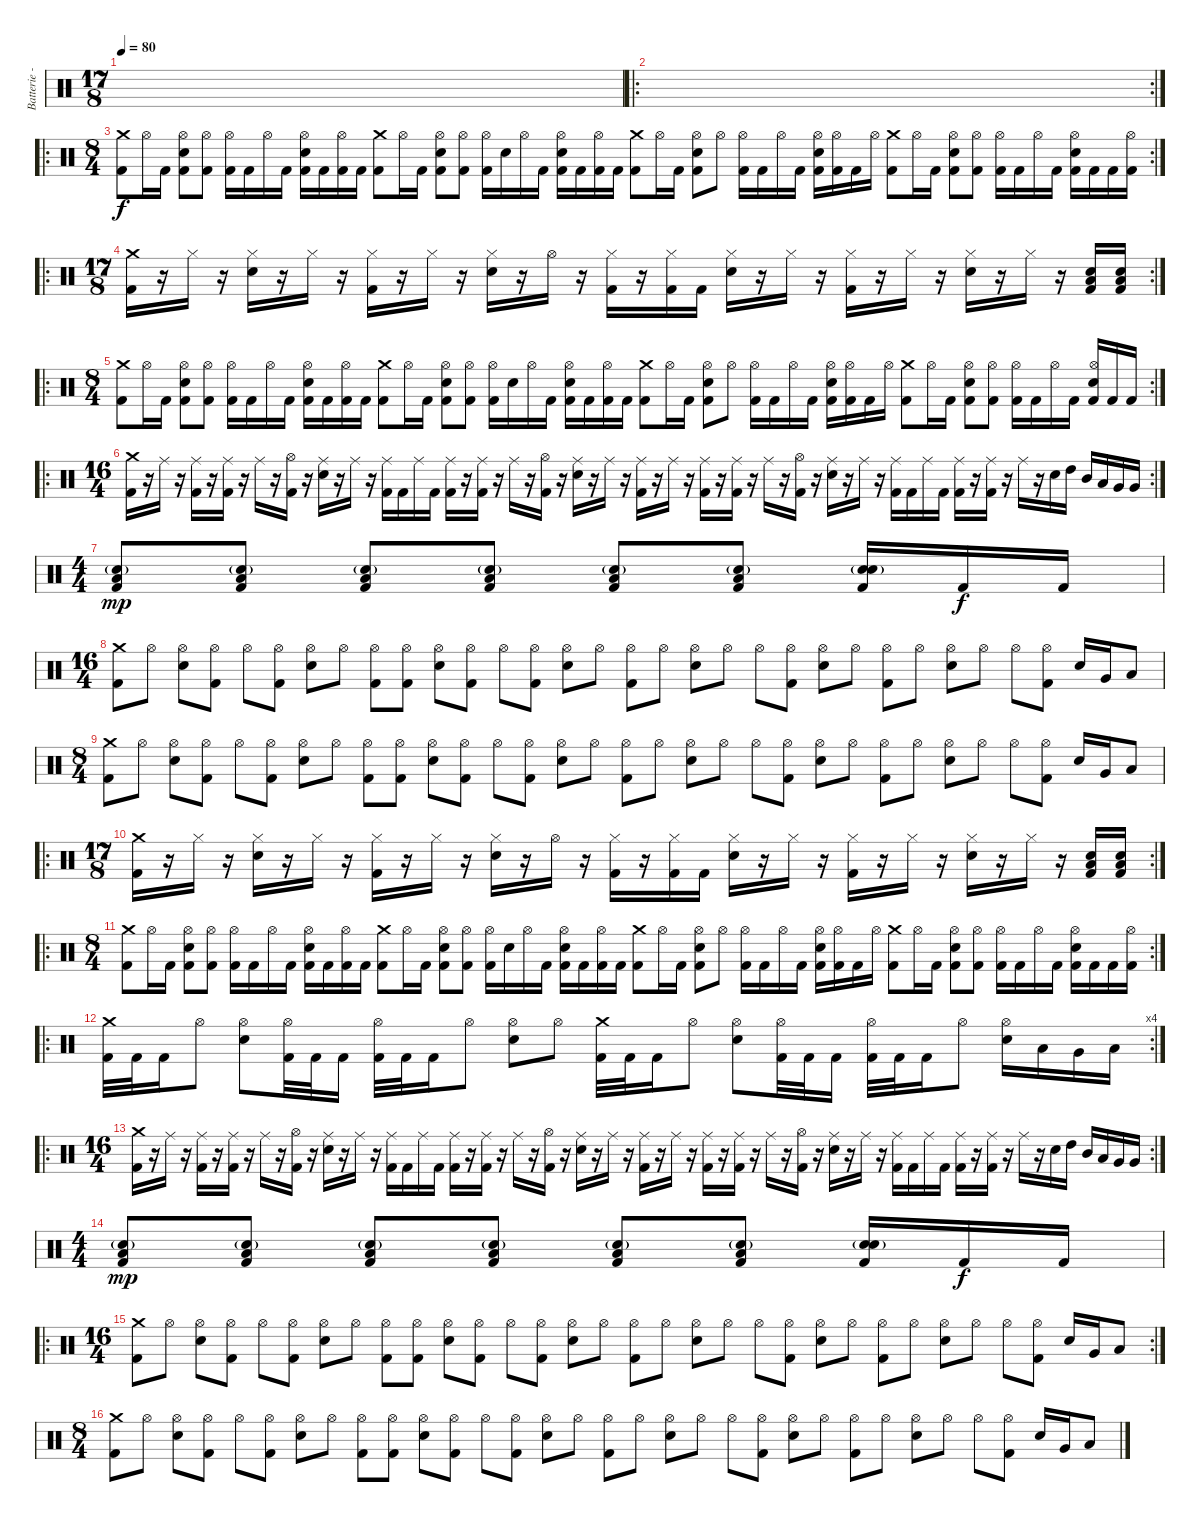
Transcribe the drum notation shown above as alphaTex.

\track ("Batterie - " "Batterie -") {instrument percussion}
\staff {score}
\articulation defaults
\ts (17 8)
\tempo 80
\clef neutral
\ks c
|
\ro
\rc 2
|
\ro
\rc 2
\ts (8 4)
("Crash medium (hit)" "Kick (hit) 2").8 "Hi-Hat (open)".16 "Kick (hit) 2".16 ("Electric Snare (hit)" "Kick (hit) 2" "Hi-Hat (open)").8 ("Kick (hit) 2" "Hi-Hat (open)").8 ("Kick (hit) 2" "Hi-Hat (open)").16 "Kick (hit) 2".16 "Hi-Hat (open)".16 "Kick (hit) 2".16 ("Hi-Hat (open)" "Kick (hit) 2" "Electric Snare (hit)").16 "Kick (hit) 2".16 ("Hi-Hat (open)" "Kick (hit) 2").16 "Kick (hit) 2".16 ("Kick (hit) 2" "Crash medium (hit)").8 "Hi-Hat (open)".16 "Kick (hit) 2".16 ("Hi-Hat (open)" "Electric Snare (hit)" "Kick (hit) 2").8 ("Kick (hit) 2" "Hi-Hat (open)").8 ("Kick (hit) 2" "Hi-Hat (open)").16 "Electric Snare (hit)".16 "Hi-Hat (open)".16 "Kick (hit) 2".16 ("Hi-Hat (open)" "Kick (hit) 2" "Electric Snare (hit)").16 "Kick (hit) 2".16 ("Hi-Hat (open)" "Kick (hit) 2").16 "Kick (hit) 2".16 ("Crash medium (hit)" "Kick (hit) 2").8 "Hi-Hat (open)".16 "Kick (hit) 2".16 ("Hi-Hat (open)" "Electric Snare (hit)" "Kick (hit) 2").8 "Hi-Hat (open)".8 ("Kick (hit) 2" "Hi-Hat (open)").16 "Kick (hit) 2".16 "Hi-Hat (open)".16 "Kick (hit) 2".16 ("Hi-Hat (open)" "Kick (hit) 2" "Electric Snare (hit)").16 ("Hi-Hat (open)" "Kick (hit) 2").16 "Kick (hit) 2".16 "Hi-Hat (open)".16 ("Kick (hit) 2" "Crash medium (hit)").8 "Hi-Hat (open)".16 "Kick (hit) 2".16 ("Hi-Hat (open)" "Electric Snare (hit)" "Kick (hit) 2").8 ("Kick (hit) 2" "Hi-Hat (open)").8 ("Hi-Hat (open)" "Kick (hit) 2").16 "Kick (hit) 2".16 "Hi-Hat (open)".16 "Kick (hit) 2".16 ("Hi-Hat (open)" "Kick (hit) 2" "Electric Snare (hit)").16 "Kick (hit) 2".16 "Kick (hit) 2".16 ("Hi-Hat (open)" "Kick (hit) 2").16 |
\ro
\rc 2
\ts (17 8)
("Kick (hit) 2" "Crash medium (hit)").16 r.16 "Hi-Hat (closed)".16 r.16 ("Electric Snare (hit)" "Hi-Hat (closed)").16 r.16 "Hi-Hat (closed)".16 r.16 ("Kick (hit) 2" "Hi-Hat (closed)").16 r.16 "Hi-Hat (closed)".16 r.16 ("Electric Snare (hit)" "Hi-Hat (closed)").16 r.16 "Hi-Hat (open)".16 r.16 ("Kick (hit) 2" "Hi-Hat (closed)").16 r.16 ("Kick (hit) 2" "Hi-Hat (closed)").16 "Kick (hit) 2".16 ("Electric Snare (hit)" "Hi-Hat (closed)").16 r.16 "Hi-Hat (closed)".16 r.16 ("Kick (hit) 2" "Hi-Hat (closed)").16 r.16 "Hi-Hat (closed)".16 r.16 ("Electric Snare (hit)" "Hi-Hat (closed)").16 r.16 "Hi-Hat (closed)".16 r.16 ("Low Floor Tom (hit)" "Kick (hit) 2" "Electric Snare (hit)").16 ("Low Floor Tom (hit)" "Kick (hit) 2" "Electric Snare (hit)").16 |
\ro
\rc 2
\ts (8 4)
("Crash medium (hit)" "Kick (hit) 2").8 "Hi-Hat (open)".16 "Kick (hit) 2".16 ("Electric Snare (hit)" "Kick (hit) 2" "Hi-Hat (open)").8 ("Kick (hit) 2" "Hi-Hat (open)").8 ("Kick (hit) 2" "Hi-Hat (open)").16 "Kick (hit) 2".16 "Hi-Hat (open)".16 "Kick (hit) 2".16 ("Hi-Hat (open)" "Kick (hit) 2" "Electric Snare (hit)").16 "Kick (hit) 2".16 ("Hi-Hat (open)" "Kick (hit) 2").16 "Kick (hit) 2".16 ("Kick (hit) 2" "Crash medium (hit)").8 "Hi-Hat (open)".16 "Kick (hit) 2".16 ("Hi-Hat (open)" "Electric Snare (hit)" "Kick (hit) 2").8 ("Kick (hit) 2" "Hi-Hat (open)").8 ("Kick (hit) 2" "Hi-Hat (open)").16 "Electric Snare (hit)".16 "Hi-Hat (open)".16 "Kick (hit) 2".16 ("Hi-Hat (open)" "Kick (hit) 2" "Electric Snare (hit)").16 "Kick (hit) 2".16 ("Hi-Hat (open)" "Kick (hit) 2").16 "Kick (hit) 2".16 ("Crash medium (hit)" "Kick (hit) 2").8 "Hi-Hat (open)".16 "Kick (hit) 2".16 ("Hi-Hat (open)" "Electric Snare (hit)" "Kick (hit) 2").8 "Hi-Hat (open)".8 ("Kick (hit) 2" "Hi-Hat (open)").16 "Kick (hit) 2".16 "Hi-Hat (open)".16 "Kick (hit) 2".16 ("Hi-Hat (open)" "Kick (hit) 2" "Electric Snare (hit)").16 ("Hi-Hat (open)" "Kick (hit) 2").16 "Kick (hit) 2".16 "Hi-Hat (open)".16 ("Kick (hit) 2" "Crash medium (hit)").8 "Hi-Hat (open)".16 "Kick (hit) 2".16 ("Hi-Hat (open)" "Electric Snare (hit)" "Kick (hit) 2").8 ("Kick (hit) 2" "Hi-Hat (open)").8 ("Hi-Hat (open)" "Kick (hit) 2").16 "Kick (hit) 2".16 "Hi-Hat (open)".16 "Kick (hit) 2".16 ("Hi-Hat (open)" "Kick (hit) 2" "Electric Snare (hit)").16 "Kick (hit) 2".16 "Kick (hit) 2".16 |
\ro
\rc 2
\ts (16 4)
("Kick (hit) 2" "Crash medium (hit)").16 r.16 "Ride (middle)".16 r.16 ("Kick (hit) 2" "Ride (middle)").16 r.16 ("Kick (hit) 2" "Ride (middle)").16 r.16 "Ride (middle)".16 r.16 ("Kick (hit) 2" "Hi-Hat (open)").16 r.16 ("Electric Snare (hit)" "Ride (middle)").16 r.16 "Ride (middle)".16 r.16 ("Kick (hit) 2" "Ride (middle)").16 "Kick (hit) 2".16 "Ride (middle)".16 "Kick (hit) 2".16 ("Kick (hit) 2" "Ride (middle)").16 r.16 ("Kick (hit) 2" "Ride (middle)").16 r.16 "Ride (middle)".16 r.16 ("Kick (hit) 2" "Hi-Hat (open)").16 r.16 ("Electric Snare (hit)" "Ride (middle)").16 r.16 "Ride (middle)".16 r.16 ("Kick (hit) 2" "Ride (middle)").16 r.16 "Ride (middle)".16 r.16 ("Kick (hit) 2" "Ride (middle)").16 r.16 ("Kick (hit) 2" "Ride (middle)").16 r.16 "Ride (middle)".16 r.16 ("Hi-Hat (open)" "Kick (hit) 2").16 r.16 ("Electric Snare (hit)" "Ride (middle)").16 r.16 "Ride (middle)".16 r.16 ("Kick (hit) 2" "Ride (middle)").16 "Kick (hit) 2".16 "Ride (middle)".16 "Kick (hit) 2".16 ("Kick (hit) 2" "Ride (middle)").16 r.16 ("Kick (hit) 2" "Ride (middle)").16 r.16 "Ride (middle)".16 r.16 "Electric Snare (hit)".16 "High Tom (hit)".16 "Mid Tom (hit)".16 "Low Tom (hit)".16 "Very Low Tom (hit)".16 "Very Low Tom (hit)".16 |
\ts (4 4)
("Kick (hit) 2" "Electric Snare (hit)"{g} "Low Floor Tom (hit)").8{dy mp} ("Kick (hit) 2" "Electric Snare (hit)"{g} "Low Floor Tom (hit)").8 ("Kick (hit) 2" "Electric Snare (hit)"{g} "Low Floor Tom (hit)").8 ("Kick (hit) 2" "Electric Snare (hit)"{g} "Low Floor Tom (hit)").8 ("Kick (hit) 2" "Electric Snare (hit)"{g} "Low Floor Tom (hit)").8 ("Kick (hit) 2" "Electric Snare (hit)"{g} "Low Floor Tom (hit)").8 ("Kick (hit) 2" "Electric Snare (hit)"{g} "Electric Snare (hit)").16 "Kick (hit) 2".16{dy f} "Kick (hit) 2".16 |
\ts (16 4)
("Crash medium (hit)" "Kick (hit) 2").8 "Hi-Hat (open)".8 ("Electric Snare (hit)" "Hi-Hat (open)").8 ("Kick (hit) 2" "Hi-Hat (open)").8 "Hi-Hat (open)".8 ("Kick (hit) 2" "Hi-Hat (open)").8 ("Electric Snare (hit)" "Hi-Hat (open)").8 "Hi-Hat (open)".8 ("Kick (hit) 2" "Hi-Hat (open)").8 ("Kick (hit) 2" "Hi-Hat (open)").8 ("Electric Snare (hit)" "Hi-Hat (open)").8 ("Kick (hit) 2" "Hi-Hat (open)").8 "Hi-Hat (open)".8 ("Kick (hit) 2" "Hi-Hat (open)").8 ("Electric Snare (hit)" "Hi-Hat (open)").8 "Hi-Hat (open)".8 ("Kick (hit) 2" "Hi-Hat (open)").8 "Hi-Hat (open)".8 ("Electric Snare (hit)" "Hi-Hat (open)").8 "Hi-Hat (open)".8 "Hi-Hat (open)".8 ("Kick (hit) 2" "Hi-Hat (open)").8 ("Electric Snare (hit)" "Hi-Hat (open)").8 "Hi-Hat (open)".8 ("Kick (hit) 2" "Hi-Hat (open)").8 "Hi-Hat (open)".8 ("Electric Snare (hit)" "Hi-Hat (open)").8 "Hi-Hat (open)".8 "Hi-Hat (open)".8 ("Kick (hit) 2" "Hi-Hat (open)").8 "Snare (hit) 2".16 "Very Low Tom (hit)".16 "Low Floor Tom (hit)".8 |
\ts (8 4)
("Crash medium (hit)" "Kick (hit) 2").8 "Hi-Hat (open)".8 ("Snare (hit) 2" "Hi-Hat (open)").8 ("Kick (hit) 2" "Hi-Hat (open)").8 "Hi-Hat (open)".8 ("Kick (hit) 2" "Hi-Hat (open)").8 ("Snare (hit) 2" "Hi-Hat (open)").8 "Hi-Hat (open)".8 ("Kick (hit) 2" "Hi-Hat (open)").8 ("Kick (hit) 2" "Hi-Hat (open)").8 ("Snare (hit) 2" "Hi-Hat (open)").8 ("Kick (hit) 2" "Hi-Hat (open)").8 "Hi-Hat (open)".8 ("Kick (hit) 2" "Hi-Hat (open)").8 ("Snare (hit) 2" "Hi-Hat (open)").8 "Hi-Hat (open)".8 ("Kick (hit) 2" "Hi-Hat (open)").8 "Hi-Hat (open)".8 ("Snare (hit) 2" "Hi-Hat (open)").8 "Hi-Hat (open)".8 "Hi-Hat (open)".8 ("Kick (hit) 2" "Hi-Hat (open)").8 ("Snare (hit) 2" "Hi-Hat (open)").8 "Hi-Hat (open)".8 ("Kick (hit) 2" "Hi-Hat (open)").8 "Hi-Hat (open)".8 ("Snare (hit) 2" "Hi-Hat (open)").8 "Hi-Hat (open)".8 "Hi-Hat (open)".8 ("Kick (hit) 2" "Hi-Hat (open)").8 "Snare (hit) 2".16 "Very Low Tom (hit)".16 "Low Floor Tom (hit)".8 |
\ro
\rc 2
\ts (17 8)
("Kick (hit) 2" "Crash medium (hit)").16 r.16 "Hi-Hat (closed)".16 r.16 ("Electric Snare (hit)" "Hi-Hat (closed)").16 r.16 "Hi-Hat (closed)".16 r.16 ("Kick (hit) 2" "Hi-Hat (closed)").16 r.16 "Hi-Hat (closed)".16 r.16 ("Electric Snare (hit)" "Hi-Hat (closed)").16 r.16 "Hi-Hat (open)".16 r.16 ("Kick (hit) 2" "Hi-Hat (closed)").16 r.16 ("Kick (hit) 2" "Hi-Hat (closed)").16 "Kick (hit) 2".16 ("Electric Snare (hit)" "Hi-Hat (closed)").16 r.16 "Hi-Hat (closed)".16 r.16 ("Kick (hit) 2" "Hi-Hat (closed)").16 r.16 "Hi-Hat (closed)".16 r.16 ("Electric Snare (hit)" "Hi-Hat (closed)").16 r.16 "Hi-Hat (closed)".16 r.16 ("Low Floor Tom (hit)" "Kick (hit) 2" "Electric Snare (hit)").16 ("Low Floor Tom (hit)" "Kick (hit) 2" "Electric Snare (hit)").16 |
\ro
\rc 2
\ts (8 4)
("Crash medium (hit)" "Kick (hit) 2").8 "Hi-Hat (open)".16 "Kick (hit) 2".16 ("Electric Snare (hit)" "Kick (hit) 2" "Hi-Hat (open)").8 ("Kick (hit) 2" "Hi-Hat (open)").8 ("Kick (hit) 2" "Hi-Hat (open)").16 "Kick (hit) 2".16 "Hi-Hat (open)".16 "Kick (hit) 2".16 ("Hi-Hat (open)" "Kick (hit) 2" "Electric Snare (hit)").16 "Kick (hit) 2".16 ("Hi-Hat (open)" "Kick (hit) 2").16 "Kick (hit) 2".16 ("Kick (hit) 2" "Crash medium (hit)").8 "Hi-Hat (open)".16 "Kick (hit) 2".16 ("Hi-Hat (open)" "Electric Snare (hit)" "Kick (hit) 2").8 ("Kick (hit) 2" "Hi-Hat (open)").8 ("Kick (hit) 2" "Hi-Hat (open)").16 "Electric Snare (hit)".16 "Hi-Hat (open)".16 "Kick (hit) 2".16 ("Hi-Hat (open)" "Kick (hit) 2" "Electric Snare (hit)").16 "Kick (hit) 2".16 ("Hi-Hat (open)" "Kick (hit) 2").16 "Kick (hit) 2".16 ("Crash medium (hit)" "Kick (hit) 2").8 "Hi-Hat (open)".16 "Kick (hit) 2".16 ("Hi-Hat (open)" "Electric Snare (hit)" "Kick (hit) 2").8 "Hi-Hat (open)".8 ("Kick (hit) 2" "Hi-Hat (open)").16 "Kick (hit) 2".16 "Hi-Hat (open)".16 "Kick (hit) 2".16 ("Hi-Hat (open)" "Kick (hit) 2" "Electric Snare (hit)").16 ("Hi-Hat (open)" "Kick (hit) 2").16 "Kick (hit) 2".16 "Hi-Hat (open)".16 ("Kick (hit) 2" "Crash medium (hit)").8 "Hi-Hat (open)".16 "Kick (hit) 2".16 ("Hi-Hat (open)" "Electric Snare (hit)" "Kick (hit) 2").8 ("Kick (hit) 2" "Hi-Hat (open)").8 ("Hi-Hat (open)" "Kick (hit) 2").16 "Kick (hit) 2".16 "Hi-Hat (open)".16 "Kick (hit) 2".16 ("Hi-Hat (open)" "Kick (hit) 2" "Electric Snare (hit)").16 "Kick (hit) 2".16 "Kick (hit) 2".16 ("Hi-Hat (open)" "Kick (hit) 2").16 |
\ro
\rc 4
("Crash medium (hit)" "Kick (hit) 2").32 "Kick (hit) 2".32 "Kick (hit) 2".16 "Hi-Hat (open)".8 ("Hi-Hat (open)" "Electric Snare (hit)").8 ("Hi-Hat (open)" "Kick (hit) 2").32 "Kick (hit) 2".32 "Kick (hit) 2".16 ("Hi-Hat (open)" "Kick (hit) 2").32 "Kick (hit) 2".32 "Kick (hit) 2".16 "Hi-Hat (open)".8 ("Hi-Hat (open)" "Electric Snare (hit)").8 "Hi-Hat (open)".8 ("Crash medium (hit)" "Kick (hit) 2").32 "Kick (hit) 2".32 "Kick (hit) 2".16 "Hi-Hat (open)".8 ("Electric Snare (hit)" "Hi-Hat (open)").8 ("Hi-Hat (open)" "Kick (hit) 2").32 "Kick (hit) 2".32 "Kick (hit) 2".16 ("Hi-Hat (open)" "Kick (hit) 2").32 "Kick (hit) 2".32 "Kick (hit) 2".16 "Hi-Hat (open)".8 ("Hi-Hat (open)" "Electric Snare (hit)").16 "Low Tom (hit)".16 "Very Low Tom (hit)".16 "Low Floor Tom (hit)".16 |
\ro
\rc 2
\ts (16 4)
("Kick (hit) 2" "Crash medium (hit)").16 r.16 "Ride (middle)".16 r.16 ("Kick (hit) 2" "Ride (middle)").16 r.16 ("Kick (hit) 2" "Ride (middle)").16 r.16 "Ride (middle)".16 r.16 ("Kick (hit) 2" "Hi-Hat (open)").16 r.16 ("Electric Snare (hit)" "Ride (middle)").16 r.16 "Ride (middle)".16 r.16 ("Kick (hit) 2" "Ride (middle)").16 "Kick (hit) 2".16 "Ride (middle)".16 "Kick (hit) 2".16 ("Kick (hit) 2" "Ride (middle)").16 r.16 ("Kick (hit) 2" "Ride (middle)").16 r.16 "Ride (middle)".16 r.16 ("Kick (hit) 2" "Hi-Hat (open)").16 r.16 ("Electric Snare (hit)" "Ride (middle)").16 r.16 "Ride (middle)".16 r.16 ("Kick (hit) 2" "Ride (middle)").16 r.16 "Ride (middle)".16 r.16 ("Kick (hit) 2" "Ride (middle)").16 r.16 ("Kick (hit) 2" "Ride (middle)").16 r.16 "Ride (middle)".16 r.16 ("Hi-Hat (open)" "Kick (hit) 2").16 r.16 ("Electric Snare (hit)" "Ride (middle)").16 r.16 "Ride (middle)".16 r.16 ("Kick (hit) 2" "Ride (middle)").16 "Kick (hit) 2".16 "Ride (middle)".16 "Kick (hit) 2".16 ("Kick (hit) 2" "Ride (middle)").16 r.16 ("Kick (hit) 2" "Ride (middle)").16 r.16 "Ride (middle)".16 r.16 "Electric Snare (hit)".16 "High Tom (hit)".16 "Mid Tom (hit)".16 "Low Tom (hit)".16 "Very Low Tom (hit)".16 "Very Low Tom (hit)".16 |
\ts (4 4)
("Kick (hit) 2" "Electric Snare (hit)"{g} "Low Floor Tom (hit)").8{dy mp} ("Kick (hit) 2" "Electric Snare (hit)"{g} "Low Floor Tom (hit)").8 ("Kick (hit) 2" "Electric Snare (hit)"{g} "Low Floor Tom (hit)").8 ("Kick (hit) 2" "Electric Snare (hit)"{g} "Low Floor Tom (hit)").8 ("Kick (hit) 2" "Electric Snare (hit)"{g} "Low Floor Tom (hit)").8 ("Kick (hit) 2" "Electric Snare (hit)"{g} "Low Floor Tom (hit)").8 ("Kick (hit) 2" "Electric Snare (hit)"{g} "Electric Snare (hit)").16 "Kick (hit) 2".16{dy f} "Kick (hit) 2".16 |
\ro
\rc 2
\ts (16 4)
("Crash medium (hit)" "Kick (hit) 2").8 "Hi-Hat (open)".8 ("Electric Snare (hit)" "Hi-Hat (open)").8 ("Kick (hit) 2" "Hi-Hat (open)").8 "Hi-Hat (open)".8 ("Kick (hit) 2" "Hi-Hat (open)").8 ("Electric Snare (hit)" "Hi-Hat (open)").8 "Hi-Hat (open)".8 ("Kick (hit) 2" "Hi-Hat (open)").8 ("Kick (hit) 2" "Hi-Hat (open)").8 ("Electric Snare (hit)" "Hi-Hat (open)").8 ("Kick (hit) 2" "Hi-Hat (open)").8 "Hi-Hat (open)".8 ("Kick (hit) 2" "Hi-Hat (open)").8 ("Electric Snare (hit)" "Hi-Hat (open)").8 "Hi-Hat (open)".8 ("Kick (hit) 2" "Hi-Hat (open)").8 "Hi-Hat (open)".8 ("Electric Snare (hit)" "Hi-Hat (open)").8 "Hi-Hat (open)".8 "Hi-Hat (open)".8 ("Kick (hit) 2" "Hi-Hat (open)").8 ("Electric Snare (hit)" "Hi-Hat (open)").8 "Hi-Hat (open)".8 ("Kick (hit) 2" "Hi-Hat (open)").8 "Hi-Hat (open)".8 ("Electric Snare (hit)" "Hi-Hat (open)").8 "Hi-Hat (open)".8 "Hi-Hat (open)".8 ("Kick (hit) 2" "Hi-Hat (open)").8 "Snare (hit) 2".16 "Very Low Tom (hit)".16 "Low Floor Tom (hit)".8 |
\ts (8 4)
("Crash medium (hit)" "Kick (hit) 2").8 "Hi-Hat (open)".8 ("Snare (hit) 2" "Hi-Hat (open)").8 ("Kick (hit) 2" "Hi-Hat (open)").8 "Hi-Hat (open)".8 ("Kick (hit) 2" "Hi-Hat (open)").8 ("Snare (hit) 2" "Hi-Hat (open)").8 "Hi-Hat (open)".8 ("Kick (hit) 2" "Hi-Hat (open)").8 ("Kick (hit) 2" "Hi-Hat (open)").8 ("Snare (hit) 2" "Hi-Hat (open)").8 ("Kick (hit) 2" "Hi-Hat (open)").8 "Hi-Hat (open)".8 ("Kick (hit) 2" "Hi-Hat (open)").8 ("Snare (hit) 2" "Hi-Hat (open)").8 "Hi-Hat (open)".8 ("Kick (hit) 2" "Hi-Hat (open)").8 "Hi-Hat (open)".8 ("Snare (hit) 2" "Hi-Hat (open)").8 "Hi-Hat (open)".8 "Hi-Hat (open)".8 ("Kick (hit) 2" "Hi-Hat (open)").8 ("Snare (hit) 2" "Hi-Hat (open)").8 "Hi-Hat (open)".8 ("Kick (hit) 2" "Hi-Hat (open)").8 "Hi-Hat (open)".8 ("Snare (hit) 2" "Hi-Hat (open)").8 "Hi-Hat (open)".8 "Hi-Hat (open)".8 ("Kick (hit) 2" "Hi-Hat (open)").8 "Snare (hit) 2".16 "Very Low Tom (hit)".16 "Low Floor Tom (hit)".8
